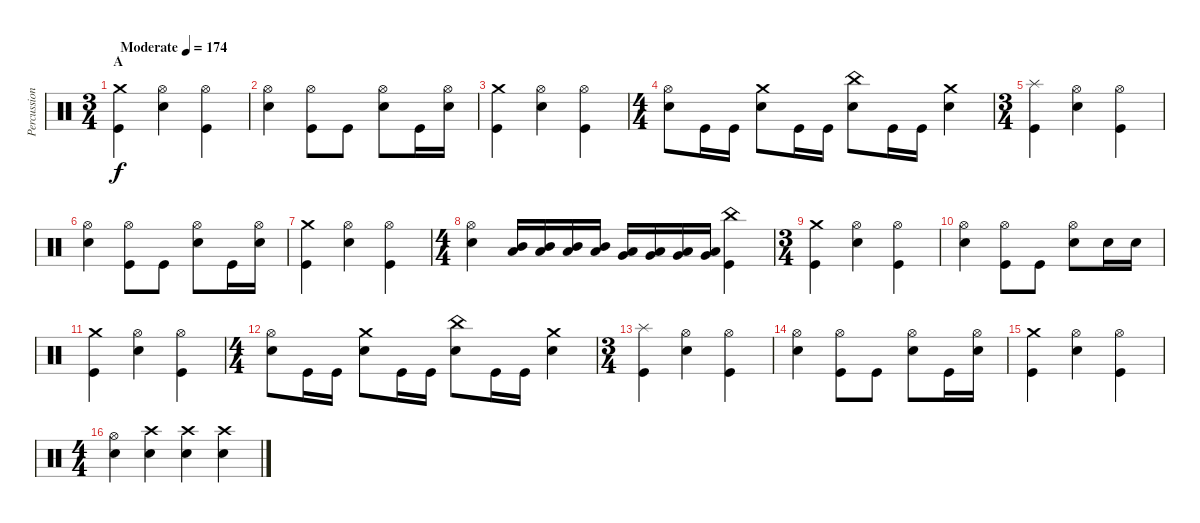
\track ("Percussion" "Percussion") {instrument percussion}
\staff {score}
\articulation defaults
\ts (3 4)
\section ("" "A")
\tempo (174 "Moderate")
\clef neutral
\ks c
("Crash medium (hit)" "Kick (hit)").4{dy f} ("Hi-Hat (open)" "Snare (hit) 2").4 ("Hi-Hat (open)" "Kick (hit)").4 |
("Hi-Hat (open)" "Snare (hit) 2").4 ("Hi-Hat (open)" "Kick (hit)").8 "Kick (hit)".8 ("Hi-Hat (open)" "Snare (hit) 2").8 "Kick (hit)".16 ("Hi-Hat (open)" "Snare (hit) 2").16 |
("Crash medium (hit)" "Kick (hit)").4 ("Hi-Hat (open)" "Snare (hit) 2").4 ("Hi-Hat (open)" "Kick (hit)").4 |
\ts (4 4)
("Hi-Hat (open)" "Snare (hit) 2").8 "Kick (hit)".16 "Kick (hit)".16 ("Crash medium (hit)" "Snare (hit) 2").8 "Kick (hit)".16 "Kick (hit)".16 ("China (hit)" "Snare (hit) 2").8 "Kick (hit)".16 "Kick (hit)".16 ("Crash medium (hit)" "Snare (hit) 2").4 |
\ts (3 4)
("Splash (hit)" "Kick (hit)").4 ("Hi-Hat (open)" "Snare (hit) 2").4 ("Hi-Hat (open)" "Kick (hit)").4 |
("Hi-Hat (open)" "Snare (hit) 2").4 ("Hi-Hat (open)" "Kick (hit)").8 "Kick (hit)".8 ("Hi-Hat (open)" "Snare (hit) 2").8 "Kick (hit)".16 ("Hi-Hat (open)" "Snare (hit) 2").16 |
("Crash medium (hit)" "Kick (hit)").4 ("Hi-Hat (open)" "Snare (hit) 2").4 ("Hi-Hat (open)" "Kick (hit)").4 |
\ts (4 4)
("Hi-Hat (open)" "Snare (hit) 2").4 ("Mid Tom (hit)" "Low Tom (hit)").16 ("Mid Tom (hit)" "Low Tom (hit)").16 ("Mid Tom (hit)" "Low Tom (hit)").16 ("Mid Tom (hit)" "Low Tom (hit)").16 ("Low Tom (hit)" "Very Low Tom (hit)").16 ("Low Tom (hit)" "Very Low Tom (hit)").16 ("Low Tom (hit)" "Very Low Tom (hit)").16 ("Low Tom (hit)" "Very Low Tom (hit)").16 ("China (hit)" "Kick (hit)").4 |
\ts (3 4)
("Crash medium (hit)" "Kick (hit)").4 ("Hi-Hat (open)" "Snare (hit) 2").4 ("Hi-Hat (open)" "Kick (hit)").4 |
("Hi-Hat (open)" "Snare (hit) 2").4 ("Hi-Hat (open)" "Kick (hit)").8 "Kick (hit)".8 ("Hi-Hat (open)" "Snare (hit) 2").8 "Snare (hit) 2".16 "Snare (hit) 2".16 |
("Crash medium (hit)" "Kick (hit)").4 ("Hi-Hat (open)" "Snare (hit) 2").4 ("Hi-Hat (open)" "Kick (hit)").4 |
\ts (4 4)
("Hi-Hat (open)" "Snare (hit) 2").8 "Kick (hit)".16 "Kick (hit)".16 ("Crash medium (hit)" "Snare (hit) 2").8 "Kick (hit)".16 "Kick (hit)".16 ("China (hit)" "Snare (hit) 2").8 "Kick (hit)".16 "Kick (hit)".16 ("Crash medium (hit)" "Snare (hit) 2").4 |
\ts (3 4)
("Splash (hit)" "Kick (hit)").4 ("Hi-Hat (open)" "Snare (hit) 2").4 ("Hi-Hat (open)" "Kick (hit)").4 |
("Hi-Hat (open)" "Snare (hit) 2").4 ("Hi-Hat (open)" "Kick (hit)").8 "Kick (hit)".8 ("Hi-Hat (open)" "Snare (hit) 2").8 "Kick (hit)".16 ("Hi-Hat (open)" "Snare (hit) 2").16 |
("Crash medium (hit)" "Kick (hit)").4 ("Hi-Hat (open)" "Snare (hit) 2").4 ("Hi-Hat (open)" "Kick (hit)").4 |
\ts (4 4)
("Hi-Hat (open)" "Snare (hit) 2").4 ("Crash high (hit)" "Snare (hit) 2").4 ("Crash high (hit)" "Snare (hit) 2").4 ("Crash high (hit)" "Snare (hit) 2").4
